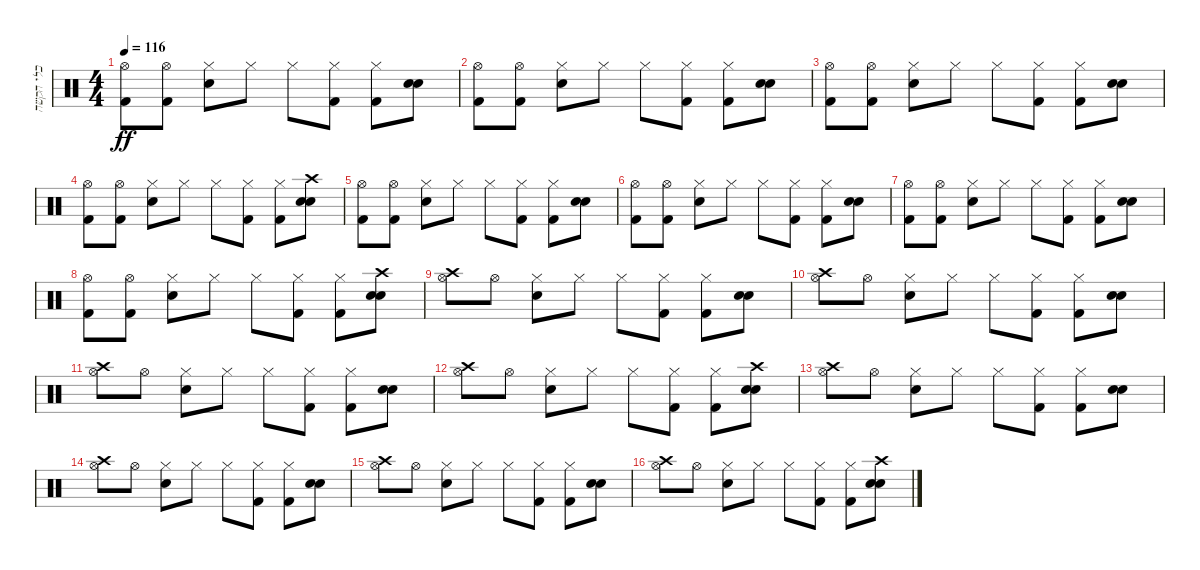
\track ("כלי הקשה" "כלי הקשה") {instrument percussion}
\staff {score}
\articulation defaults
\ts (4 4)
\tempo 116
\clef neutral
\ks c
("Hi-Hat (open)" "Kick (hit) 2").8{dy ff} ("Hi-Hat (open)" "Kick (hit) 2").8 ("Hi-Hat (closed)" "Snare (hit) 2").8 "Hi-Hat (closed)".8 "Hi-Hat (closed)".8 ("Hi-Hat (closed)" "Kick (hit) 2").8 ("Hi-Hat (closed)" "Kick (hit) 2").8 ("Electric Snare (hit)" "Snare (hit) 2").8 |
("Hi-Hat (open)" "Kick (hit) 2").8 ("Hi-Hat (open)" "Kick (hit) 2").8 ("Hi-Hat (closed)" "Snare (hit) 2").8 "Hi-Hat (closed)".8 "Hi-Hat (closed)".8 ("Hi-Hat (closed)" "Kick (hit) 2").8 ("Hi-Hat (closed)" "Kick (hit) 2").8 ("Electric Snare (hit)" "Snare (hit) 2").8 |
("Hi-Hat (open)" "Kick (hit) 2").8 ("Hi-Hat (open)" "Kick (hit) 2").8 ("Hi-Hat (closed)" "Snare (hit) 2").8 "Hi-Hat (closed)".8 "Hi-Hat (closed)".8 ("Hi-Hat (closed)" "Kick (hit) 2").8 ("Hi-Hat (closed)" "Kick (hit) 2").8 ("Electric Snare (hit)" "Snare (hit) 2").8 |
("Hi-Hat (open)" "Kick (hit) 2").8 ("Hi-Hat (open)" "Kick (hit) 2").8 ("Hi-Hat (closed)" "Snare (hit) 2").8 "Hi-Hat (closed)".8 "Hi-Hat (closed)".8 ("Hi-Hat (closed)" "Kick (hit) 2").8 ("Hi-Hat (closed)" "Kick (hit) 2").8 ("Crash high (hit)" "Electric Snare (hit)" "Snare (hit) 2").8 |
("Hi-Hat (open)" "Kick (hit) 2").8 ("Hi-Hat (open)" "Kick (hit) 2").8 ("Hi-Hat (closed)" "Snare (hit) 2").8 "Hi-Hat (closed)".8 "Hi-Hat (closed)".8 ("Hi-Hat (closed)" "Kick (hit) 2").8 ("Hi-Hat (closed)" "Kick (hit) 2").8 ("Electric Snare (hit)" "Snare (hit) 2").8 |
("Hi-Hat (open)" "Kick (hit) 2").8 ("Hi-Hat (open)" "Kick (hit) 2").8 ("Hi-Hat (closed)" "Snare (hit) 2").8 "Hi-Hat (closed)".8 "Hi-Hat (closed)".8 ("Hi-Hat (closed)" "Kick (hit) 2").8 ("Hi-Hat (closed)" "Kick (hit) 2").8 ("Electric Snare (hit)" "Snare (hit) 2").8 |
("Hi-Hat (open)" "Kick (hit) 2").8 ("Hi-Hat (open)" "Kick (hit) 2").8 ("Hi-Hat (closed)" "Snare (hit) 2").8 "Hi-Hat (closed)".8 "Hi-Hat (closed)".8 ("Hi-Hat (closed)" "Kick (hit) 2").8 ("Hi-Hat (closed)" "Kick (hit) 2").8 ("Electric Snare (hit)" "Snare (hit) 2").8 |
("Hi-Hat (open)" "Kick (hit) 2").8 ("Hi-Hat (open)" "Kick (hit) 2").8 ("Hi-Hat (closed)" "Snare (hit) 2").8 "Hi-Hat (closed)".8 "Hi-Hat (closed)".8 ("Hi-Hat (closed)" "Kick (hit) 2").8 ("Hi-Hat (closed)" "Kick (hit) 2").8 ("Crash high (hit)" "Electric Snare (hit)" "Snare (hit) 2").8 |
("Hi-Hat (open)" "Crash high (hit)").8 "Hi-Hat (open)".8 ("Hi-Hat (closed)" "Snare (hit) 2").8 "Hi-Hat (closed)".8 "Hi-Hat (closed)".8 ("Hi-Hat (closed)" "Kick (hit) 2").8 ("Hi-Hat (closed)" "Kick (hit) 2").8 ("Electric Snare (hit)" "Snare (hit) 2").8 |
("Hi-Hat (open)" "Crash high (hit)").8 "Hi-Hat (open)".8 ("Hi-Hat (closed)" "Snare (hit) 2").8 "Hi-Hat (closed)".8 "Hi-Hat (closed)".8 ("Hi-Hat (closed)" "Kick (hit) 2").8 ("Hi-Hat (closed)" "Kick (hit) 2").8 ("Electric Snare (hit)" "Snare (hit) 2").8 |
("Hi-Hat (open)" "Crash high (hit)").8 "Hi-Hat (open)".8 ("Hi-Hat (closed)" "Snare (hit) 2").8 "Hi-Hat (closed)".8 "Hi-Hat (closed)".8 ("Hi-Hat (closed)" "Kick (hit) 2").8 ("Hi-Hat (closed)" "Kick (hit) 2").8 ("Electric Snare (hit)" "Snare (hit) 2").8 |
("Hi-Hat (open)" "Crash high (hit)").8 "Hi-Hat (open)".8 ("Hi-Hat (closed)" "Snare (hit) 2").8 "Hi-Hat (closed)".8 "Hi-Hat (closed)".8 ("Hi-Hat (closed)" "Kick (hit) 2").8 ("Hi-Hat (closed)" "Kick (hit) 2").8 ("Crash high (hit)" "Electric Snare (hit)" "Snare (hit) 2").8 |
("Hi-Hat (open)" "Crash high (hit)").8 "Hi-Hat (open)".8 ("Hi-Hat (closed)" "Snare (hit) 2").8 "Hi-Hat (closed)".8 "Hi-Hat (closed)".8 ("Hi-Hat (closed)" "Kick (hit) 2").8 ("Hi-Hat (closed)" "Kick (hit) 2").8 ("Electric Snare (hit)" "Snare (hit) 2").8 |
("Hi-Hat (open)" "Crash high (hit)").8 "Hi-Hat (open)".8 ("Hi-Hat (closed)" "Snare (hit) 2").8 "Hi-Hat (closed)".8 "Hi-Hat (closed)".8 ("Hi-Hat (closed)" "Kick (hit) 2").8 ("Hi-Hat (closed)" "Kick (hit) 2").8 ("Electric Snare (hit)" "Snare (hit) 2").8 |
("Hi-Hat (open)" "Crash high (hit)").8 "Hi-Hat (open)".8 ("Hi-Hat (closed)" "Snare (hit) 2").8 "Hi-Hat (closed)".8 "Hi-Hat (closed)".8 ("Hi-Hat (closed)" "Kick (hit) 2").8 ("Hi-Hat (closed)" "Kick (hit) 2").8 ("Electric Snare (hit)" "Snare (hit) 2").8 |
("Hi-Hat (open)" "Crash high (hit)").8 "Hi-Hat (open)".8 ("Hi-Hat (closed)" "Snare (hit) 2").8 "Hi-Hat (closed)".8 "Hi-Hat (closed)".8 ("Hi-Hat (closed)" "Kick (hit) 2").8 ("Hi-Hat (closed)" "Kick (hit) 2").8 ("Crash high (hit)" "Electric Snare (hit)" "Snare (hit) 2").8
